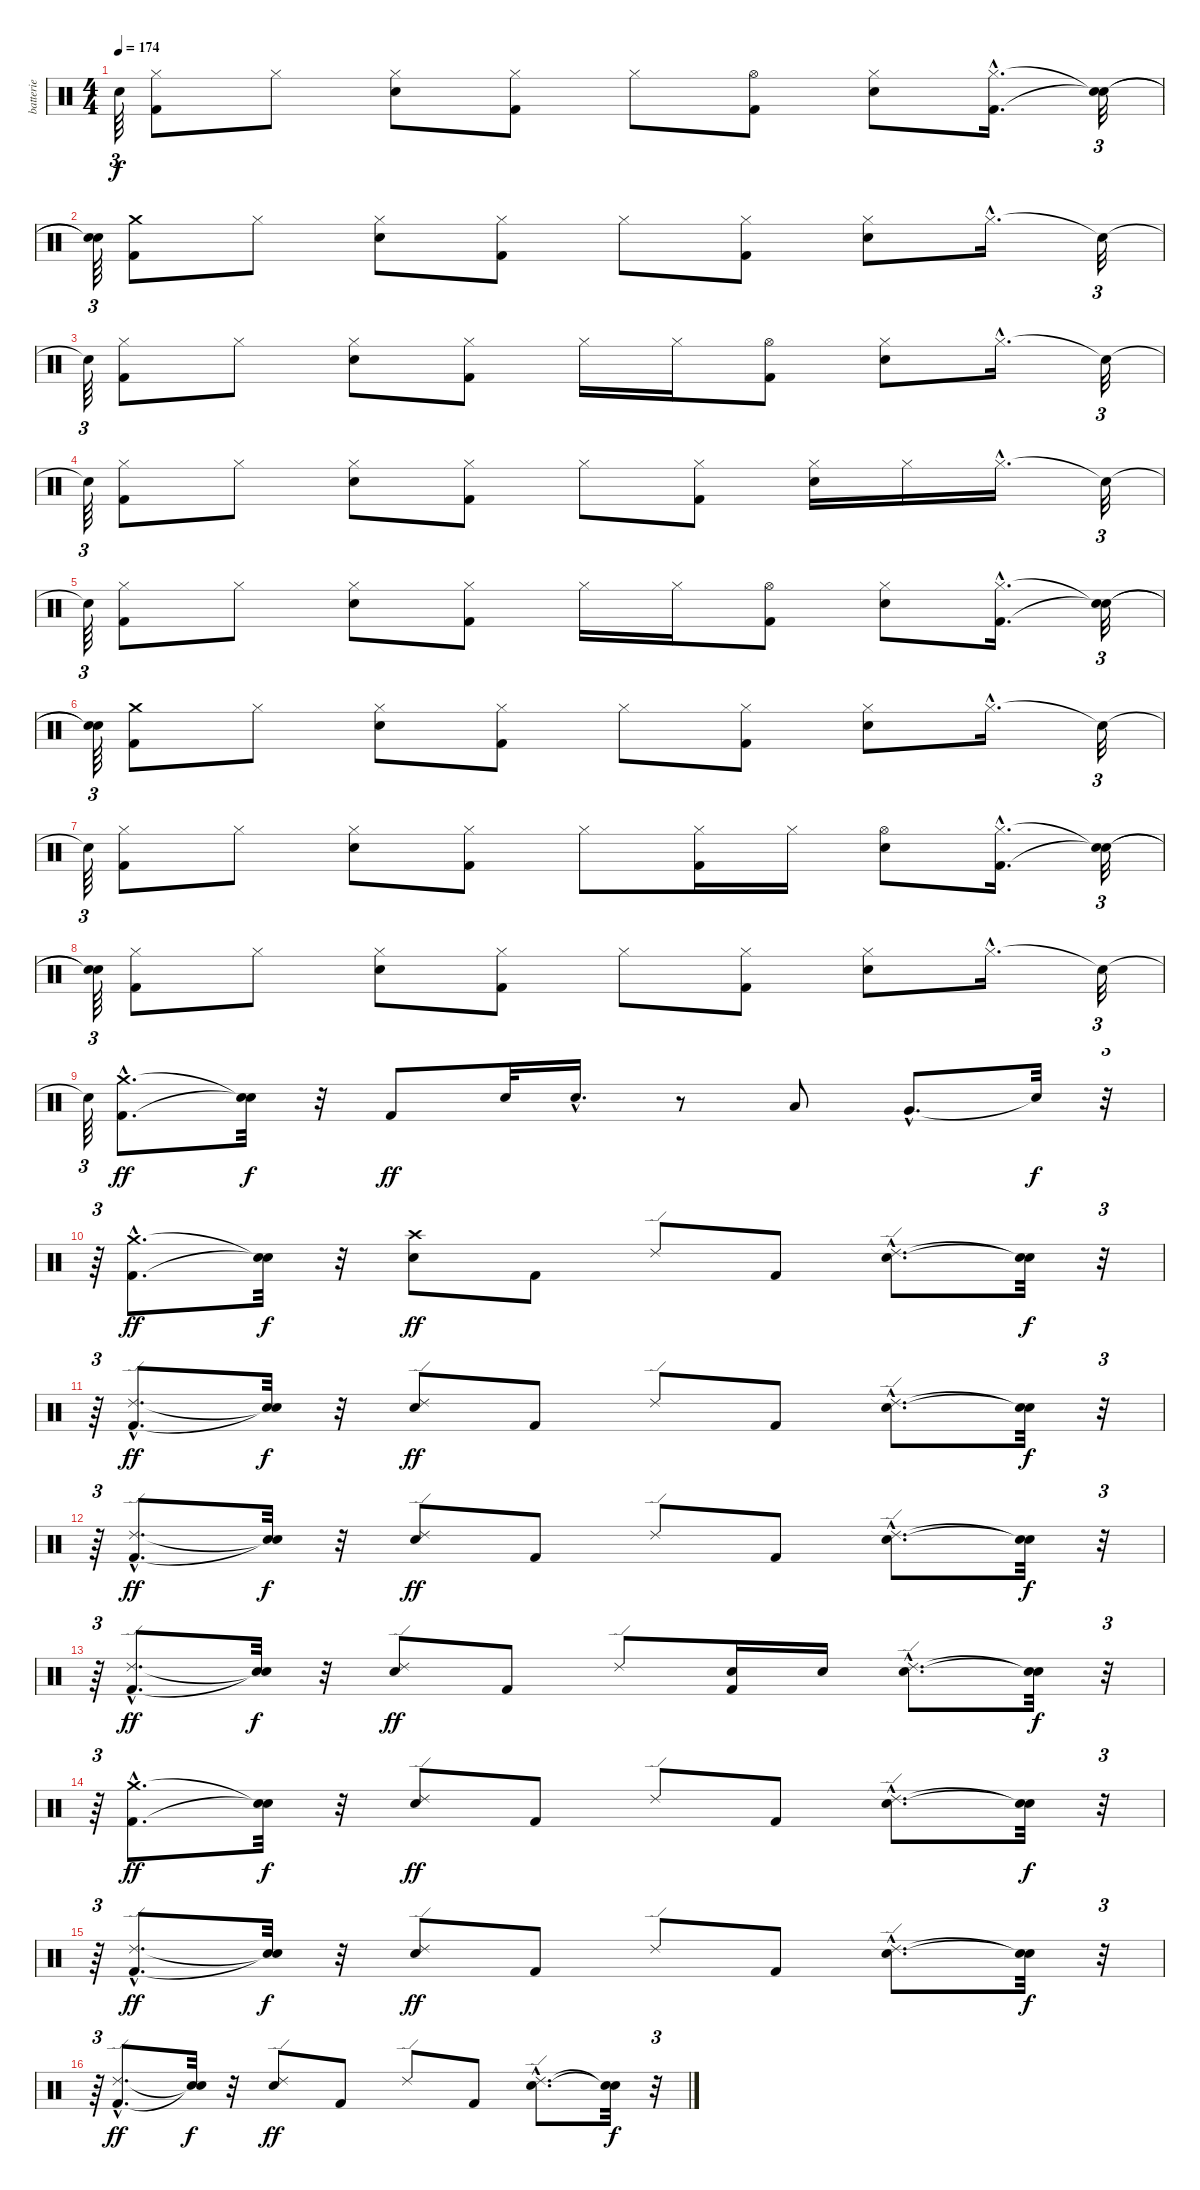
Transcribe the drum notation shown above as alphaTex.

\track ("batterie" "batterie") {instrument percussion}
\staff {score}
\articulation defaults
\ts (4 4)
\tempo 174
\clef neutral
\ks c "Snare (hit)"{t}.64{tu (3 2) dy f}
("Kick (hit) 2" "Hi-Hat (closed)").8 "Hi-Hat (closed)".8 ("Electric Snare (hit)" "Hi-Hat (closed)").8 ("Kick (hit) 2" "Hi-Hat (closed)").8 "Hi-Hat (closed)".8 ("Kick (hit) 2" "Hi-Hat (open)").8 ("Electric Snare (hit)" "Hi-Hat (closed)").8 ("Kick (hit) 2"{hac} "Hi-Hat (closed)"{hac}).16{d} ("Snare (hit)"{t} "Snare (hit)"{t}).32{tu (3 2)} |
("Snare (hit)"{t} "Snare (hit)"{t}).64{tu (3 2)} ("Kick (hit) 2" "Crash medium (hit)").8 "Hi-Hat (closed)".8 ("Electric Snare (hit)" "Hi-Hat (closed)").8 ("Kick (hit) 2" "Hi-Hat (closed)").8 "Hi-Hat (closed)".8 ("Kick (hit) 2" "Hi-Hat (closed)").8 ("Electric Snare (hit)" "Hi-Hat (closed)").8 "Hi-Hat (closed)"{hac}.16{d} "Snare (hit)"{t}.32{tu (3 2)} |
"Snare (hit)"{t}.64{tu (3 2)} ("Kick (hit) 2" "Hi-Hat (closed)").8 "Hi-Hat (closed)".8 ("Electric Snare (hit)" "Hi-Hat (closed)").8 ("Kick (hit) 2" "Hi-Hat (closed)").8 "Hi-Hat (closed)".16 "Hi-Hat (closed)".16 ("Kick (hit) 2" "Hi-Hat (open)").8 ("Electric Snare (hit)" "Hi-Hat (closed)").8 "Hi-Hat (closed)"{hac}.16{d} "Snare (hit)"{t}.32{tu (3 2)} |
"Snare (hit)"{t}.64{tu (3 2)} ("Kick (hit) 2" "Hi-Hat (closed)").8 "Hi-Hat (closed)".8 ("Electric Snare (hit)" "Hi-Hat (closed)").8 ("Kick (hit) 2" "Hi-Hat (closed)").8 "Hi-Hat (closed)".8 ("Kick (hit) 2" "Hi-Hat (closed)").8 ("Electric Snare (hit)" "Hi-Hat (closed)").16 "Hi-Hat (closed)".16 "Hi-Hat (closed)"{hac}.16{d} "Snare (hit)"{t}.32{tu (3 2)} |
"Snare (hit)"{t}.64{tu (3 2)} ("Kick (hit) 2" "Hi-Hat (closed)").8 "Hi-Hat (closed)".8 ("Electric Snare (hit)" "Hi-Hat (closed)").8 ("Kick (hit) 2" "Hi-Hat (closed)").8 "Hi-Hat (closed)".16 "Hi-Hat (closed)".16 ("Kick (hit) 2" "Hi-Hat (open)").8 ("Electric Snare (hit)" "Hi-Hat (closed)").8 ("Kick (hit) 2"{hac} "Hi-Hat (closed)"{hac}).16{d} ("Snare (hit)"{t} "Snare (hit)"{t}).32{tu (3 2)} |
("Snare (hit)"{t} "Snare (hit)"{t}).64{tu (3 2)} ("Kick (hit) 2" "Crash medium (hit)").8 "Hi-Hat (closed)".8 ("Electric Snare (hit)" "Hi-Hat (closed)").8 ("Kick (hit) 2" "Hi-Hat (closed)").8 "Hi-Hat (closed)".8 ("Kick (hit) 2" "Hi-Hat (closed)").8 ("Electric Snare (hit)" "Hi-Hat (closed)").8 "Hi-Hat (closed)"{hac}.16{d} "Snare (hit)"{t}.32{tu (3 2)} |
"Snare (hit)"{t}.64{tu (3 2)} ("Kick (hit) 2" "Hi-Hat (closed)").8 "Hi-Hat (closed)".8 ("Electric Snare (hit)" "Hi-Hat (closed)").8 ("Kick (hit) 2" "Hi-Hat (closed)").8 "Hi-Hat (closed)".8 ("Kick (hit) 2" "Hi-Hat (closed)").16 "Hi-Hat (closed)".16 ("Electric Snare (hit)" "Hi-Hat (open)").8 ("Kick (hit) 2"{hac} "Hi-Hat (closed)"{hac}).16{d} ("Snare (hit)"{t} "Snare (hit)"{t}).32{tu (3 2)} |
("Snare (hit)"{t} "Snare (hit)"{t}).64{tu (3 2)} ("Kick (hit) 2" "Hi-Hat (closed)").8 "Hi-Hat (closed)".8 ("Electric Snare (hit)" "Hi-Hat (closed)").8 ("Kick (hit) 2" "Hi-Hat (closed)").8 "Hi-Hat (closed)".8 ("Kick (hit) 2" "Hi-Hat (closed)").8 ("Electric Snare (hit)" "Hi-Hat (closed)").8 "Hi-Hat (closed)"{hac}.16{d} "Snare (hit)"{t}.32{tu (3 2)} |
"Snare (hit)"{t}.64{tu (3 2)} ("Kick (hit) 2"{hac} "Crash medium (hit)"{hac}).8{d dy ff} ("Snare (hit)"{t} "Snare (hit)"{t}).32{dy f} r.32 "Kick (hit) 2".8{dy ff} "Electric Snare (hit)".32 "Electric Snare (hit)"{hac}.16{d} r.8 "Low Tom (hit)".8 "Very Low Tom (hit)"{hac}.8{d} "Snare (hit)"{t}.32{dy f} r.32{tu (3 2)} |
r.64{tu (3 2)} ("Kick (hit) 2"{hac} "Crash medium (hit)"{hac}).8{d dy ff} ("Snare (hit)"{t} "Snare (hit)"{t}).32{dy f} r.32 ("Electric Snare (hit)" "Crash high (hit)").8{dy ff} "Kick (hit) 2".8 "Ride (edge) 2".8 "Kick (hit) 2".8 ("Electric Snare (hit)"{hac} "Ride (edge) 2"{hac}).8{d} ("Snare (hit)"{t} "Snare (hit)"{t}).32{dy f} r.32{tu (3 2)} |
r.64{tu (3 2)} ("Kick (hit) 2"{hac} "Ride (edge) 2"{hac}).8{d dy ff} ("Snare (hit)"{t} "Snare (hit)"{t}).32{dy f} r.32 ("Electric Snare (hit)" "Ride (edge) 2").8{dy ff} "Kick (hit) 2".8 "Ride (edge) 2".8 "Kick (hit) 2".8 ("Electric Snare (hit)"{hac} "Ride (edge) 2"{hac}).8{d} ("Snare (hit)"{t} "Snare (hit)"{t}).32{dy f} r.32{tu (3 2)} |
r.64{tu (3 2)} ("Kick (hit) 2"{hac} "Ride (edge) 2"{hac}).8{d dy ff} ("Snare (hit)"{t} "Snare (hit)"{t}).32{dy f} r.32 ("Electric Snare (hit)" "Ride (edge) 2").8{dy ff} "Kick (hit) 2".8 "Ride (edge) 2".8 "Kick (hit) 2".8 ("Electric Snare (hit)"{hac} "Ride (edge) 2"{hac}).8{d} ("Snare (hit)"{t} "Snare (hit)"{t}).32{dy f} r.32{tu (3 2)} |
r.64{tu (3 2)} ("Kick (hit) 2"{hac} "Ride (edge) 2"{hac}).8{d dy ff} ("Snare (hit)"{t} "Snare (hit)"{t}).32{dy f} r.32 ("Electric Snare (hit)" "Ride (edge) 2").8{dy ff} "Kick (hit) 2".8 "Ride (edge) 2".8 ("Kick (hit) 2" "Electric Snare (hit)").16 "Electric Snare (hit)".16 ("Electric Snare (hit)"{hac} "Ride (edge) 2"{hac}).8{d} ("Snare (hit)"{t} "Snare (hit)"{t}).32{dy f} r.32{tu (3 2)} |
r.64{tu (3 2)} ("Kick (hit) 2"{hac} "Crash medium (hit)"{hac}).8{d dy ff} ("Snare (hit)"{t} "Snare (hit)"{t}).32{dy f} r.32 ("Electric Snare (hit)" "Ride (edge) 2").8{dy ff} "Kick (hit) 2".8 "Ride (edge) 2".8 "Kick (hit) 2".8 ("Electric Snare (hit)"{hac} "Ride (edge) 2"{hac}).8{d} ("Snare (hit)"{t} "Snare (hit)"{t}).32{dy f} r.32{tu (3 2)} |
r.64{tu (3 2)} ("Kick (hit) 2"{hac} "Ride (edge) 2"{hac}).8{d dy ff} ("Snare (hit)"{t} "Snare (hit)"{t}).32{dy f} r.32 ("Electric Snare (hit)" "Ride (edge) 2").8{dy ff} "Kick (hit) 2".8 "Ride (edge) 2".8 "Kick (hit) 2".8 ("Electric Snare (hit)"{hac} "Ride (edge) 2"{hac}).8{d} ("Snare (hit)"{t} "Snare (hit)"{t}).32{dy f} r.32{tu (3 2)} |
r.64{tu (3 2)} ("Kick (hit) 2"{hac} "Ride (edge) 2"{hac}).8{d dy ff} ("Snare (hit)"{t} "Snare (hit)"{t}).32{dy f} r.32 ("Electric Snare (hit)" "Ride (edge) 2").8{dy ff} "Kick (hit) 2".8 "Ride (edge) 2".8 "Kick (hit) 2".8 ("Electric Snare (hit)"{hac} "Ride (edge) 2"{hac}).8{d} ("Snare (hit)"{t} "Snare (hit)"{t}).32{dy f} r.32{tu (3 2)}
